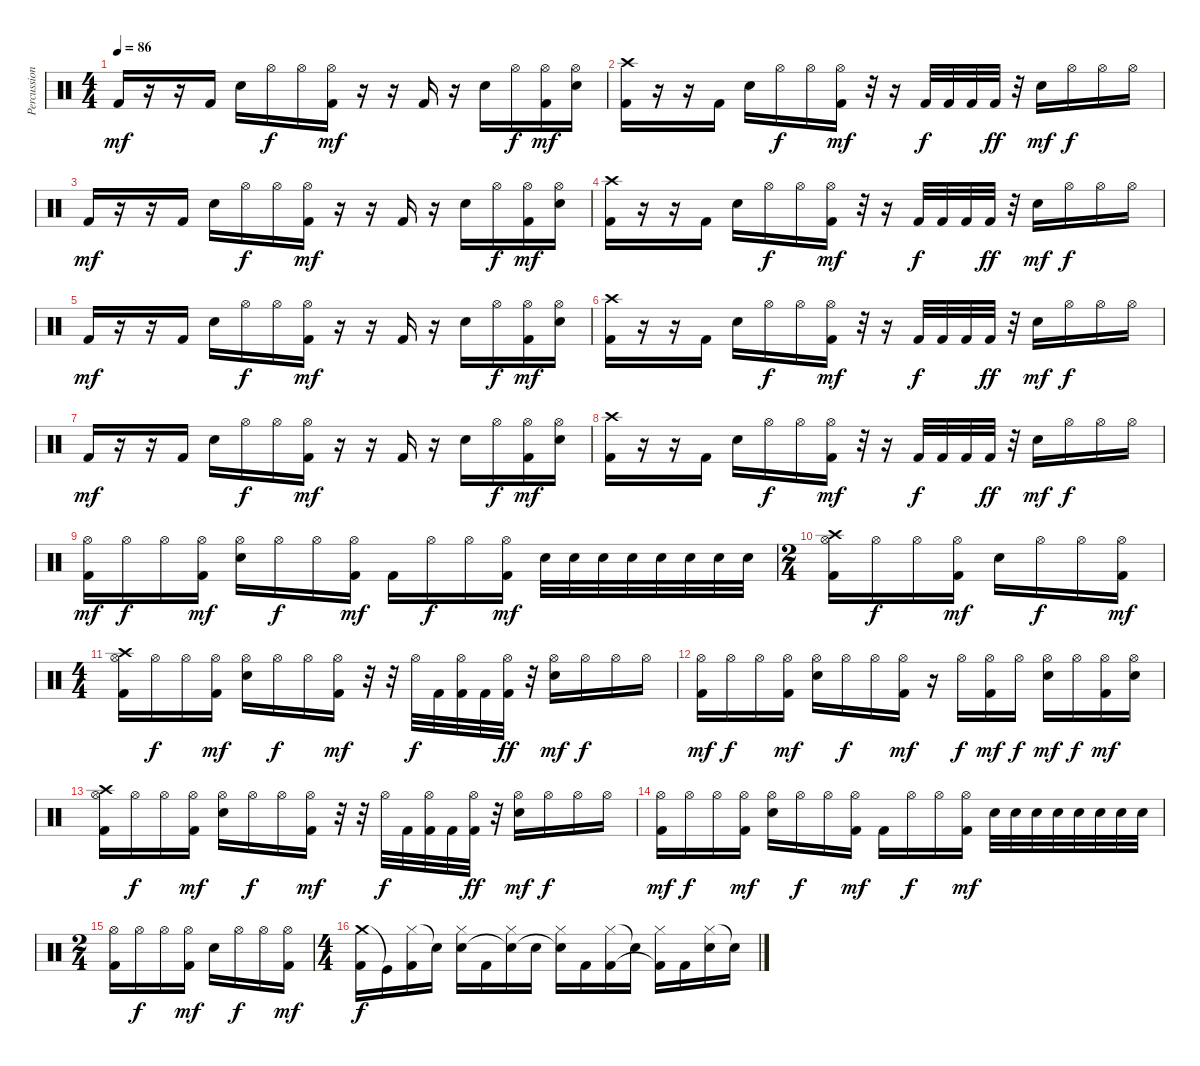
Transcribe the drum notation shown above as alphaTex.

\track ("Percussion" "Percussion") {instrument percussion}
\staff {score}
\articulation defaults
\ts (4 4)
\tempo 86
\clef neutral
\ks c "Kick (hit) 2".16{dy mf}
r.16 r.16 "Kick (hit) 2".16 "Electric Snare (hit)".16 "Hi-Hat (open)".16{dy f} "Hi-Hat (open)".16 ("Hi-Hat (open)" "Kick (hit) 2").16{dy mf} r.16 r.16 "Kick (hit) 2".16 r.16 "Electric Snare (hit)".16 "Hi-Hat (open)".16{dy f} ("Hi-Hat (open)" "Kick (hit) 2").16{dy mf} ("Hi-Hat (open)" "Electric Snare (hit)").16 |
("Crash high (hit)" "Kick (hit) 2").16 r.16 r.16 "Kick (hit) 2".16 "Electric Snare (hit)".16 "Hi-Hat (open)".16{dy f} "Hi-Hat (open)".16 ("Hi-Hat (open)" "Kick (hit) 2").16{dy mf} r.32 r.16 "Kick (hit) 2".32{dy f} "Kick (hit) 2".32 "Kick (hit) 2".32 "Kick (hit) 2".32{dy ff} r.32 "Electric Snare (hit)".16{dy mf} "Hi-Hat (open)".16{dy f} "Hi-Hat (open)".16 "Hi-Hat (open)".16 |
"Kick (hit) 2".16{dy mf} r.16 r.16 "Kick (hit) 2".16 "Electric Snare (hit)".16 "Hi-Hat (open)".16{dy f} "Hi-Hat (open)".16 ("Hi-Hat (open)" "Kick (hit) 2").16{dy mf} r.16 r.16 "Kick (hit) 2".16 r.16 "Electric Snare (hit)".16 "Hi-Hat (open)".16{dy f} ("Hi-Hat (open)" "Kick (hit) 2").16{dy mf} ("Hi-Hat (open)" "Electric Snare (hit)").16 |
("Crash high (hit)" "Kick (hit) 2").16 r.16 r.16 "Kick (hit) 2".16 "Electric Snare (hit)".16 "Hi-Hat (open)".16{dy f} "Hi-Hat (open)".16 ("Hi-Hat (open)" "Kick (hit) 2").16{dy mf} r.32 r.16 "Kick (hit) 2".32{dy f} "Kick (hit) 2".32 "Kick (hit) 2".32 "Kick (hit) 2".32{dy ff} r.32 "Electric Snare (hit)".16{dy mf} "Hi-Hat (open)".16{dy f} "Hi-Hat (open)".16 "Hi-Hat (open)".16 |
"Kick (hit) 2".16{dy mf} r.16 r.16 "Kick (hit) 2".16 "Electric Snare (hit)".16 "Hi-Hat (open)".16{dy f} "Hi-Hat (open)".16 ("Hi-Hat (open)" "Kick (hit) 2").16{dy mf} r.16 r.16 "Kick (hit) 2".16 r.16 "Electric Snare (hit)".16 "Hi-Hat (open)".16{dy f} ("Hi-Hat (open)" "Kick (hit) 2").16{dy mf} ("Hi-Hat (open)" "Electric Snare (hit)").16 |
("Crash high (hit)" "Kick (hit) 2").16 r.16 r.16 "Kick (hit) 2".16 "Electric Snare (hit)".16 "Hi-Hat (open)".16{dy f} "Hi-Hat (open)".16 ("Hi-Hat (open)" "Kick (hit) 2").16{dy mf} r.32 r.16 "Kick (hit) 2".32{dy f} "Kick (hit) 2".32 "Kick (hit) 2".32 "Kick (hit) 2".32{dy ff} r.32 "Electric Snare (hit)".16{dy mf} "Hi-Hat (open)".16{dy f} "Hi-Hat (open)".16 "Hi-Hat (open)".16 |
"Kick (hit) 2".16{dy mf} r.16 r.16 "Kick (hit) 2".16 "Electric Snare (hit)".16 "Hi-Hat (open)".16{dy f} "Hi-Hat (open)".16 ("Hi-Hat (open)" "Kick (hit) 2").16{dy mf} r.16 r.16 "Kick (hit) 2".16 r.16 "Electric Snare (hit)".16 "Hi-Hat (open)".16{dy f} ("Hi-Hat (open)" "Kick (hit) 2").16{dy mf} ("Hi-Hat (open)" "Electric Snare (hit)").16 |
("Crash high (hit)" "Kick (hit) 2").16 r.16 r.16 "Kick (hit) 2".16 "Electric Snare (hit)".16 "Hi-Hat (open)".16{dy f} "Hi-Hat (open)".16 ("Hi-Hat (open)" "Kick (hit) 2").16{dy mf} r.32 r.16 "Kick (hit) 2".32{dy f} "Kick (hit) 2".32 "Kick (hit) 2".32 "Kick (hit) 2".32{dy ff} r.32 "Electric Snare (hit)".16{dy mf} "Hi-Hat (open)".16{dy f} "Hi-Hat (open)".16 "Hi-Hat (open)".16 |
("Hi-Hat (open)" "Kick (hit) 2").16{dy mf} "Hi-Hat (open)".16{dy f} "Hi-Hat (open)".16 ("Hi-Hat (open)" "Kick (hit) 2").16{dy mf} ("Hi-Hat (open)" "Electric Snare (hit)").16 "Hi-Hat (open)".16{dy f} "Hi-Hat (open)".16 ("Hi-Hat (open)" "Kick (hit) 2").16{dy mf} "Kick (hit) 2".16 "Hi-Hat (open)".16{dy f} "Hi-Hat (open)".16 ("Hi-Hat (open)" "Kick (hit) 2").16{dy mf} "Electric Snare (hit)".32 "Electric Snare (hit)".32 "Electric Snare (hit)".32 "Electric Snare (hit)".32 "Electric Snare (hit)".32 "Electric Snare (hit)".32 "Electric Snare (hit)".32 "Electric Snare (hit)".32 |
\ts (2 4)
("Crash high (hit)" "Hi-Hat (open)" "Kick (hit) 2").16 "Hi-Hat (open)".16{dy f} "Hi-Hat (open)".16 ("Hi-Hat (open)" "Kick (hit) 2").16{dy mf} "Electric Snare (hit)".16 "Hi-Hat (open)".16{dy f} "Hi-Hat (open)".16 ("Hi-Hat (open)" "Kick (hit) 2").16{dy mf} |
\ts (4 4)
("Crash high (hit)" "Hi-Hat (open)" "Kick (hit) 2").16 "Hi-Hat (open)".16{dy f} "Hi-Hat (open)".16 ("Hi-Hat (open)" "Kick (hit) 2").16{dy mf} ("Hi-Hat (open)" "Electric Snare (hit)").16 "Hi-Hat (open)".16{dy f} "Hi-Hat (open)".16 ("Hi-Hat (open)" "Kick (hit) 2").16{dy mf} r.32 r.32 "Hi-Hat (open)".32{dy f} "Kick (hit) 2".32 ("Hi-Hat (open)" "Kick (hit) 2").32 "Kick (hit) 2".32 ("Hi-Hat (open)" "Kick (hit) 2").32{dy ff} r.32 ("Hi-Hat (open)" "Electric Snare (hit)").16{dy mf} "Hi-Hat (open)".16{dy f} "Hi-Hat (open)".16 "Hi-Hat (open)".16 |
("Hi-Hat (open)" "Kick (hit) 2").16{dy mf} "Hi-Hat (open)".16{dy f} "Hi-Hat (open)".16 ("Hi-Hat (open)" "Kick (hit) 2").16{dy mf} ("Hi-Hat (open)" "Electric Snare (hit)").16 "Hi-Hat (open)".16{dy f} "Hi-Hat (open)".16 ("Hi-Hat (open)" "Kick (hit) 2").16{dy mf} r.16 "Hi-Hat (open)".16{dy f} ("Hi-Hat (open)" "Kick (hit) 2").16{dy mf} "Hi-Hat (open)".16{dy f} ("Hi-Hat (open)" "Electric Snare (hit)").16{dy mf} "Hi-Hat (open)".16{dy f} ("Hi-Hat (open)" "Kick (hit) 2").16{dy mf} ("Hi-Hat (open)" "Electric Snare (hit)").16 |
("Crash high (hit)" "Hi-Hat (open)" "Kick (hit) 2").16 "Hi-Hat (open)".16{dy f} "Hi-Hat (open)".16 ("Hi-Hat (open)" "Kick (hit) 2").16{dy mf} ("Hi-Hat (open)" "Electric Snare (hit)").16 "Hi-Hat (open)".16{dy f} "Hi-Hat (open)".16 ("Hi-Hat (open)" "Kick (hit) 2").16{dy mf} r.32 r.32 "Hi-Hat (open)".32{dy f} "Kick (hit) 2".32 ("Hi-Hat (open)" "Kick (hit) 2").32 "Kick (hit) 2".32 ("Hi-Hat (open)" "Kick (hit) 2").32{dy ff} r.32 ("Hi-Hat (open)" "Electric Snare (hit)").16{dy mf} "Hi-Hat (open)".16{dy f} "Hi-Hat (open)".16 "Hi-Hat (open)".16 |
("Hi-Hat (open)" "Kick (hit) 2").16{dy mf} "Hi-Hat (open)".16{dy f} "Hi-Hat (open)".16 ("Hi-Hat (open)" "Kick (hit) 2").16{dy mf} ("Hi-Hat (open)" "Electric Snare (hit)").16 "Hi-Hat (open)".16{dy f} "Hi-Hat (open)".16 ("Hi-Hat (open)" "Kick (hit) 2").16{dy mf} "Kick (hit) 2".16 "Hi-Hat (open)".16{dy f} "Hi-Hat (open)".16 ("Hi-Hat (open)" "Kick (hit) 2").16{dy mf} "Electric Snare (hit)".32 "Electric Snare (hit)".32 "Electric Snare (hit)".32 "Electric Snare (hit)".32 "Electric Snare (hit)".32 "Electric Snare (hit)".32 "Electric Snare (hit)".32 "Electric Snare (hit)".32 |
\ts (2 4)
("Hi-Hat (open)" "Kick (hit) 2").16 "Hi-Hat (open)".16{dy f} "Hi-Hat (open)".16 ("Hi-Hat (open)" "Kick (hit) 2").16{dy mf} "Electric Snare (hit)".16 "Hi-Hat (open)".16{dy f} "Hi-Hat (open)".16 ("Hi-Hat (open)" "Kick (hit) 2").16{dy mf} |
\ts (4 4)
("Crash medium (hit)" "Kick (hit) 2").16{dy f} "Kick (hit)"{t}.16 ("Hi-Hat (closed)" "Kick (hit) 2").16 "Snare (hit)"{t}.16 ("Hi-Hat (closed)" "Electric Snare (hit)").16 "Kick (hit) 2".16 ("Hi-Hat (closed)" "Snare (hit)"{t}).16 "Electric Snare (hit)".16 ("Hi-Hat (closed)" "Snare (hit)"{t}).16 "Kick (hit) 2".16 ("Hi-Hat (closed)" "Kick (hit) 2").16 "Snare (hit)"{t}.16 ("Hi-Hat (closed)" "Kick (hit) 2"{t}).16 "Kick (hit) 2".16 ("Hi-Hat (closed)" "Electric Snare (hit)").16 "Snare (hit)"{t}.16
